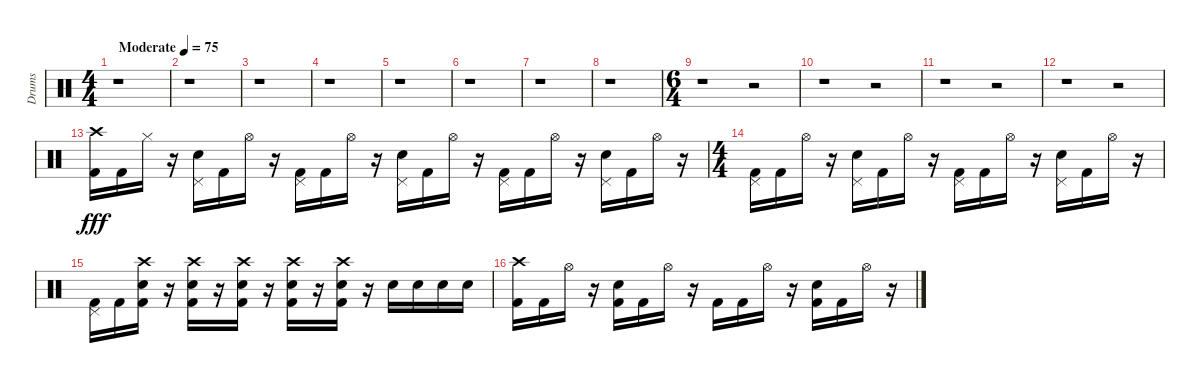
\track ("Drums" "Drums") {instrument percussion}
\staff {score}
\articulation defaults
\ts (4 4)
\tempo (75 "Moderate")
\clef neutral
\ks c
r.1{dy fff} |
r.1 |
r.1 |
r.1 |
r.1 |
r.1 |
r.1 |
r.1 |
\ts (6 4)
r.1 r.2 |
r.1 r.2 |
r.1 r.2 |
r.1 r.2 |
("Crash high (hit)" "Kick (hit) 2").16{volume 16} "Kick (hit) 2".16 "Hi-Hat (closed)".16 r.16 ("Pedal Hi-Hat (hit)" "Electric Snare (hit)").16 "Kick (hit) 2".16 "Hi-Hat (open)".16 r.16 ("Pedal Hi-Hat (hit)" "Kick (hit) 2").16 "Kick (hit) 2".16 "Hi-Hat (open)".16 r.16 ("Pedal Hi-Hat (hit)" "Electric Snare (hit)").16 "Kick (hit) 2".16 "Hi-Hat (open)".16 r.16 ("Pedal Hi-Hat (hit)" "Kick (hit) 2").16 "Kick (hit) 2".16 "Hi-Hat (open)".16 r.16 ("Pedal Hi-Hat (hit)" "Electric Snare (hit)").16 "Kick (hit) 2".16 "Hi-Hat (open)".16 r.16 |
\ts (4 4)
("Pedal Hi-Hat (hit)" "Kick (hit) 2").16 "Kick (hit) 2".16 "Hi-Hat (open)".16 r.16 ("Pedal Hi-Hat (hit)" "Electric Snare (hit)").16 "Kick (hit) 2".16 "Hi-Hat (open)".16 r.16 ("Pedal Hi-Hat (hit)" "Kick (hit) 2").16 "Kick (hit) 2".16 "Hi-Hat (open)".16 r.16 ("Pedal Hi-Hat (hit)" "Electric Snare (hit)").16 "Kick (hit) 2".16 "Hi-Hat (open)".16 r.16 |
("Kick (hit) 2" "Pedal Hi-Hat (hit)").16 "Kick (hit) 2".16 ("Kick (hit) 2" "Crash high (hit)" "Electric Snare (hit)").16 r.16 ("Kick (hit) 2" "Crash high (hit)" "Electric Snare (hit)").16 r.16 ("Kick (hit) 2" "Crash high (hit)" "Electric Snare (hit)").16 r.16 ("Kick (hit) 2" "Crash high (hit)" "Electric Snare (hit)").16 r.16 ("Crash high (hit)" "Electric Snare (hit)" "Kick (hit) 2").16 r.16 "Electric Snare (hit)".16 "Electric Snare (hit)".16 "Electric Snare (hit)".16 "Electric Snare (hit)".16 |
("Crash high (hit)" "Kick (hit) 2").16 "Kick (hit) 2".16 "Hi-Hat (open)".16 r.16 ("Electric Snare (hit)" "Kick (hit) 2").16 "Kick (hit) 2".16 "Hi-Hat (open)".16 r.16 "Kick (hit) 2".16 "Kick (hit) 2".16 "Hi-Hat (open)".16 r.16 ("Electric Snare (hit)" "Kick (hit) 2").16 "Kick (hit) 2".16 "Hi-Hat (open)".16 r.16
